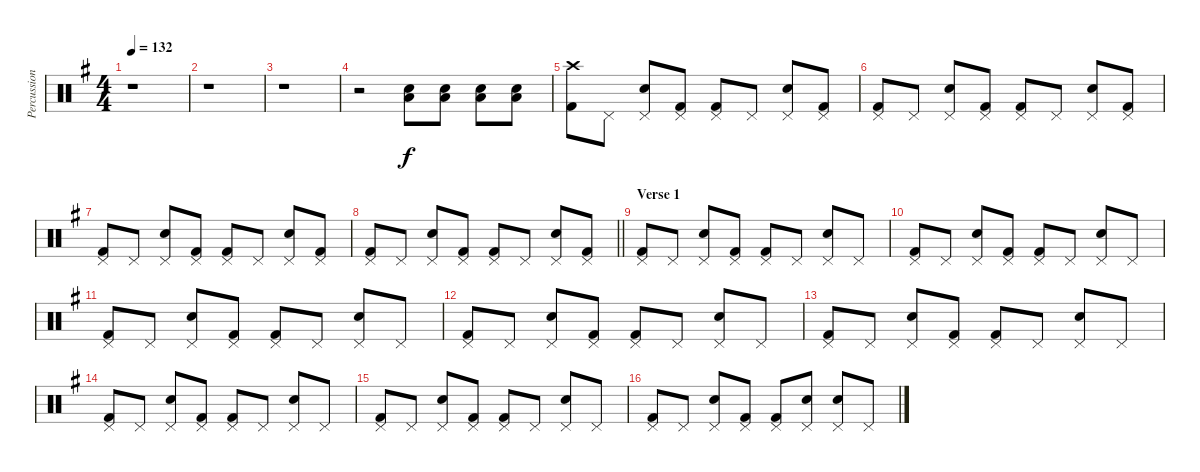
\track ("Percussion" "Percussion") {instrument percussion}
\staff {score}
\articulation defaults
\ts (4 4)
\tempo 132
\clef neutral
\ks g
r.1{dy f} |
r.1 |
r.1 |
r.2 ("Electric Snare (hit)" "Low Tom (hit)").8 ("Electric Snare (hit)" "Low Tom (hit)").8 ("Electric Snare (hit)" "Low Tom (hit)").8 ("Electric Snare (hit)" "Low Tom (hit)").8 |
("Crash high (hit)" "Kick (hit) 2").8 "Pedal Hi-Hat (hit)".8 ("Pedal Hi-Hat (hit)" "Snare (hit) 2").8 ("Pedal Hi-Hat (hit)" "Kick (hit) 2").8 ("Pedal Hi-Hat (hit)" "Kick (hit) 2").8 "Pedal Hi-Hat (hit)".8 ("Pedal Hi-Hat (hit)" "Snare (hit) 2").8 ("Pedal Hi-Hat (hit)" "Kick (hit) 2").8 |
("Pedal Hi-Hat (hit)" "Kick (hit) 2").8 "Pedal Hi-Hat (hit)".8 ("Pedal Hi-Hat (hit)" "Snare (hit) 2").8 ("Pedal Hi-Hat (hit)" "Kick (hit) 2").8 ("Pedal Hi-Hat (hit)" "Kick (hit) 2").8 "Pedal Hi-Hat (hit)".8 ("Pedal Hi-Hat (hit)" "Snare (hit) 2").8 ("Pedal Hi-Hat (hit)" "Kick (hit) 2").8 |
("Pedal Hi-Hat (hit)" "Kick (hit) 2").8 "Pedal Hi-Hat (hit)".8 ("Pedal Hi-Hat (hit)" "Snare (hit) 2").8 ("Pedal Hi-Hat (hit)" "Kick (hit) 2").8 ("Pedal Hi-Hat (hit)" "Kick (hit) 2").8 "Pedal Hi-Hat (hit)".8 ("Pedal Hi-Hat (hit)" "Snare (hit) 2").8 ("Pedal Hi-Hat (hit)" "Kick (hit) 2").8 |
\barLineRight lightlight
("Pedal Hi-Hat (hit)" "Kick (hit) 2").8 "Pedal Hi-Hat (hit)".8 ("Pedal Hi-Hat (hit)" "Snare (hit) 2").8 ("Pedal Hi-Hat (hit)" "Kick (hit) 2").8 ("Pedal Hi-Hat (hit)" "Kick (hit) 2").8 "Pedal Hi-Hat (hit)".8 ("Pedal Hi-Hat (hit)" "Snare (hit) 2").8 ("Pedal Hi-Hat (hit)" "Kick (hit) 2").8 |
\section ("" "Verse 1")
("Pedal Hi-Hat (hit)" "Kick (hit) 2").8 "Pedal Hi-Hat (hit)".8 ("Pedal Hi-Hat (hit)" "Snare (hit) 2").8 ("Pedal Hi-Hat (hit)" "Kick (hit) 2").8 ("Pedal Hi-Hat (hit)" "Kick (hit) 2").8 "Pedal Hi-Hat (hit)".8 ("Pedal Hi-Hat (hit)" "Snare (hit) 2").8 "Pedal Hi-Hat (hit)".8 |
("Pedal Hi-Hat (hit)" "Kick (hit) 2").8 "Pedal Hi-Hat (hit)".8 ("Pedal Hi-Hat (hit)" "Snare (hit) 2").8 ("Pedal Hi-Hat (hit)" "Kick (hit) 2").8 ("Pedal Hi-Hat (hit)" "Kick (hit) 2").8 "Pedal Hi-Hat (hit)".8 ("Pedal Hi-Hat (hit)" "Snare (hit) 2").8 "Pedal Hi-Hat (hit)".8 |
("Pedal Hi-Hat (hit)" "Kick (hit) 2").8 "Pedal Hi-Hat (hit)".8 ("Pedal Hi-Hat (hit)" "Snare (hit) 2").8 ("Pedal Hi-Hat (hit)" "Kick (hit) 2").8 ("Pedal Hi-Hat (hit)" "Kick (hit) 2").8 "Pedal Hi-Hat (hit)".8 ("Pedal Hi-Hat (hit)" "Snare (hit) 2").8 "Pedal Hi-Hat (hit)".8 |
("Pedal Hi-Hat (hit)" "Kick (hit) 2").8 "Pedal Hi-Hat (hit)".8 ("Pedal Hi-Hat (hit)" "Snare (hit) 2").8 ("Pedal Hi-Hat (hit)" "Kick (hit) 2").8 ("Pedal Hi-Hat (hit)" "Kick (hit) 2").8 "Pedal Hi-Hat (hit)".8 ("Pedal Hi-Hat (hit)" "Snare (hit) 2").8 "Pedal Hi-Hat (hit)".8 |
("Pedal Hi-Hat (hit)" "Kick (hit) 2").8 "Pedal Hi-Hat (hit)".8 ("Pedal Hi-Hat (hit)" "Snare (hit) 2").8 ("Pedal Hi-Hat (hit)" "Kick (hit) 2").8 ("Pedal Hi-Hat (hit)" "Kick (hit) 2").8 "Pedal Hi-Hat (hit)".8 ("Pedal Hi-Hat (hit)" "Snare (hit) 2").8 "Pedal Hi-Hat (hit)".8 |
("Pedal Hi-Hat (hit)" "Kick (hit) 2").8 "Pedal Hi-Hat (hit)".8 ("Pedal Hi-Hat (hit)" "Snare (hit) 2").8 ("Pedal Hi-Hat (hit)" "Kick (hit) 2").8 ("Pedal Hi-Hat (hit)" "Kick (hit) 2").8 "Pedal Hi-Hat (hit)".8 ("Pedal Hi-Hat (hit)" "Snare (hit) 2").8 "Pedal Hi-Hat (hit)".8 |
("Pedal Hi-Hat (hit)" "Kick (hit) 2").8 "Pedal Hi-Hat (hit)".8 ("Pedal Hi-Hat (hit)" "Snare (hit) 2").8 ("Pedal Hi-Hat (hit)" "Kick (hit) 2").8 ("Pedal Hi-Hat (hit)" "Kick (hit) 2").8 "Pedal Hi-Hat (hit)".8 ("Pedal Hi-Hat (hit)" "Snare (hit) 2").8 "Pedal Hi-Hat (hit)".8 |
("Pedal Hi-Hat (hit)" "Kick (hit) 2").8 "Pedal Hi-Hat (hit)".8 ("Pedal Hi-Hat (hit)" "Snare (hit) 2").8 ("Pedal Hi-Hat (hit)" "Kick (hit) 2").8 ("Pedal Hi-Hat (hit)" "Kick (hit) 2").8 ("Pedal Hi-Hat (hit)" "Snare (hit) 2").8 ("Pedal Hi-Hat (hit)" "Snare (hit) 2").8 "Pedal Hi-Hat (hit)".8
